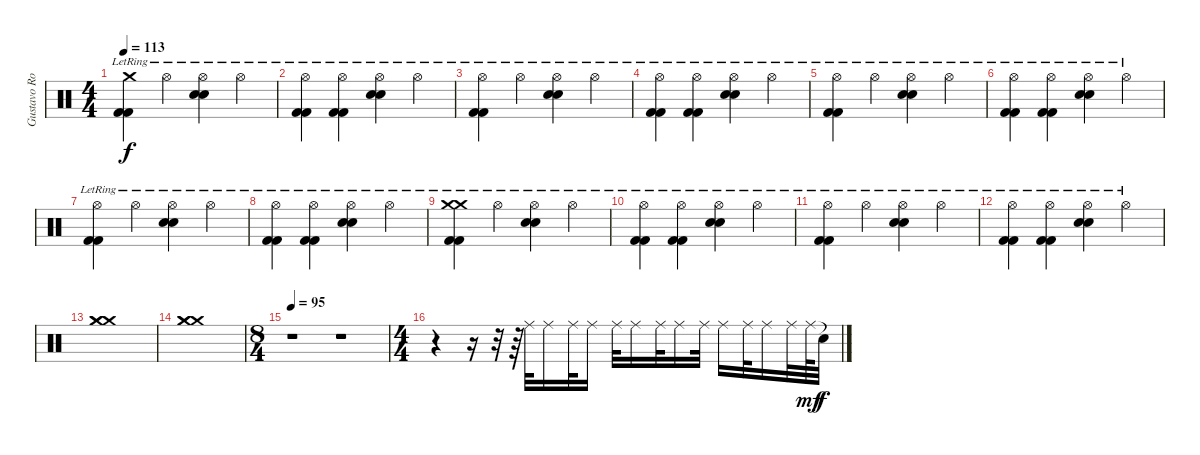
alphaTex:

\track ("Gustavo Rowek" "Gustavo Ro") {instrument percussion}
\staff {score}
\articulation defaults
\ts (4 4)
\tempo 113
\clef neutral
\ks c
("Crash medium (hit)"{lr} "Kick (hit) 2"{lr} "Kick (hit) 2"{lr}).4{dy f} "Hi-Hat (open)"{lr}.4 ("Hi-Hat (open)"{lr} "Electric Snare (hit)"{lr} "Electric Snare (hit)"{lr}).4 "Hi-Hat (open)"{lr}.4 |
("Hi-Hat (open)"{lr} "Kick (hit) 2"{lr} "Kick (hit) 2"{lr}).4 ("Hi-Hat (open)"{lr} "Kick (hit) 2"{lr} "Kick (hit) 2"{lr}).4 ("Hi-Hat (open)"{lr} "Electric Snare (hit)"{lr} "Electric Snare (hit)"{lr}).4 "Hi-Hat (open)"{lr}.4 |
("Hi-Hat (open)"{lr} "Kick (hit) 2"{lr} "Kick (hit) 2"{lr}).4 "Hi-Hat (open)"{lr}.4 ("Hi-Hat (open)"{lr} "Electric Snare (hit)"{lr} "Electric Snare (hit)"{lr}).4 "Hi-Hat (open)"{lr}.4 |
("Hi-Hat (open)"{lr} "Kick (hit) 2"{lr} "Kick (hit) 2"{lr}).4 ("Hi-Hat (open)"{lr} "Kick (hit) 2"{lr} "Kick (hit) 2"{lr}).4 ("Hi-Hat (open)"{lr} "Electric Snare (hit)"{lr} "Electric Snare (hit)"{lr}).4 "Hi-Hat (open)"{lr}.4 |
("Hi-Hat (open)"{lr} "Kick (hit) 2"{lr} "Kick (hit) 2"{lr}).4 "Hi-Hat (open)"{lr}.4 ("Hi-Hat (open)"{lr} "Electric Snare (hit)"{lr} "Electric Snare (hit)"{lr}).4 "Hi-Hat (open)"{lr}.4 |
("Hi-Hat (open)"{lr} "Kick (hit) 2"{lr} "Kick (hit) 2"{lr}).4 ("Hi-Hat (open)"{lr} "Kick (hit) 2"{lr} "Kick (hit) 2"{lr}).4 ("Hi-Hat (open)"{lr} "Electric Snare (hit)"{lr} "Electric Snare (hit)"{lr}).4 "Hi-Hat (open)"{lr}.4 |
("Hi-Hat (open)"{lr} "Kick (hit) 2"{lr} "Kick (hit) 2"{lr}).4 "Hi-Hat (open)"{lr}.4 ("Hi-Hat (open)"{lr} "Electric Snare (hit)"{lr} "Electric Snare (hit)"{lr}).4 "Hi-Hat (open)"{lr}.4 |
("Hi-Hat (open)"{lr} "Kick (hit) 2"{lr} "Kick (hit) 2"{lr}).4 ("Hi-Hat (open)"{lr} "Kick (hit) 2"{lr} "Kick (hit) 2"{lr}).4 ("Hi-Hat (open)"{lr} "Electric Snare (hit)"{lr} "Electric Snare (hit)"{lr}).4 "Hi-Hat (open)"{lr}.4 |
("Crash medium (hit)"{lr} "Crash medium (hit)" "Kick (hit) 2"{lr} "Kick (hit) 2"{lr}).4 "Hi-Hat (open)"{lr}.4 ("Hi-Hat (open)"{lr} "Electric Snare (hit)"{lr} "Electric Snare (hit)"{lr}).4 "Hi-Hat (open)"{lr}.4 |
("Hi-Hat (open)"{lr} "Kick (hit) 2"{lr} "Kick (hit) 2"{lr}).4 ("Hi-Hat (open)"{lr} "Kick (hit) 2"{lr} "Kick (hit) 2"{lr}).4 ("Hi-Hat (open)"{lr} "Electric Snare (hit)"{lr} "Electric Snare (hit)"{lr}).4 "Hi-Hat (open)"{lr}.4 |
("Hi-Hat (open)"{lr} "Kick (hit) 2"{lr} "Kick (hit) 2"{lr}).4 "Hi-Hat (open)"{lr}.4 ("Hi-Hat (open)"{lr} "Electric Snare (hit)"{lr} "Electric Snare (hit)"{lr}).4 "Hi-Hat (open)"{lr}.4 |
("Hi-Hat (open)"{lr} "Kick (hit) 2"{lr} "Kick (hit) 2"{lr}).4 ("Hi-Hat (open)"{lr} "Kick (hit) 2"{lr} "Kick (hit) 2"{lr}).4 ("Hi-Hat (open)"{lr} "Electric Snare (hit)"{lr} "Electric Snare (hit)"{lr}).4 "Hi-Hat (open)"{lr}.4 |
("Crash medium (hit)" "Crash medium (hit)" "Crash medium (hit)").1 |
("Crash medium (hit)" "Crash medium (hit)" "Crash medium (hit)").1 |
\ts (8 4)
\tempo 95
r.1 r.1 |
\ts (4 4)
r.4 r.16 r.32 r.64 "Ride (middle)".32 "Ride (middle)".16 "Ride (middle)".32 "Ride (middle)".16 "Ride (middle)".32 "Ride (middle)".16 "Ride (middle)".32 "Ride (middle)".16 "Ride (middle)".32 "Ride (middle)".16 "Ride (middle)".32 "Ride (middle)".16 "Ride (middle)".32 "Ride (middle)".64{dy mf} "Snare (hit)"{t}.32{dy f}
